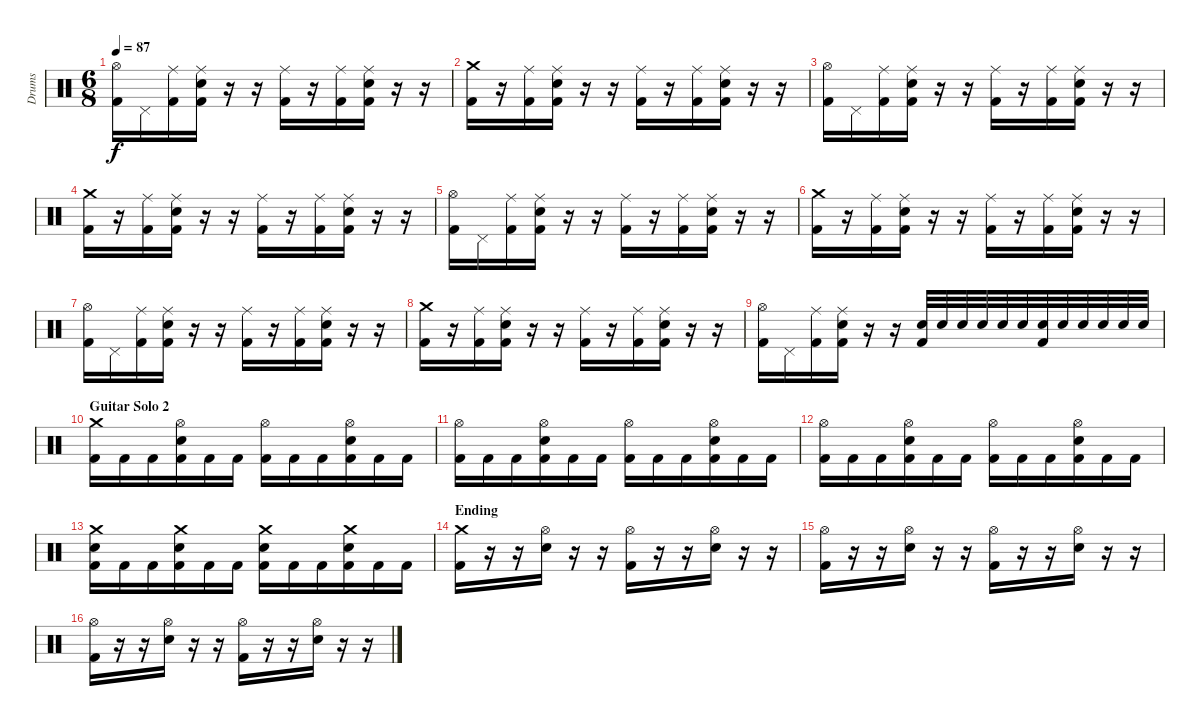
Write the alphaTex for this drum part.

\track ("Drums" "Drums") {instrument percussion}
\staff {score}
\articulation defaults
\ts (6 8)
\tempo 87
\clef neutral
\ks c
("Hi-Hat (open)" "Kick (hit) 2").16{dy f} "Pedal Hi-Hat (hit)".16 ("Ride (middle)" "Kick (hit) 2").16 ("Ride (middle)" "Snare (hit) 2" "Kick (hit) 2").16 r.16 r.16 ("Ride (middle)" "Kick (hit) 2").16 r.16 ("Ride (middle)" "Kick (hit) 2").16 ("Ride (middle)" "Snare (hit) 2" "Kick (hit) 2").16 r.16 r.16 |
("Crash medium (hit)" "Kick (hit) 2").16 r.16 ("Ride (middle)" "Kick (hit) 2").16 ("Ride (middle)" "Snare (hit) 2" "Kick (hit) 2").16 r.16 r.16 ("Ride (middle)" "Kick (hit) 2").16 r.16 ("Ride (middle)" "Kick (hit) 2").16 ("Ride (middle)" "Snare (hit) 2" "Kick (hit) 2").16 r.16 r.16 |
("Hi-Hat (open)" "Kick (hit) 2").16 "Pedal Hi-Hat (hit)".16 ("Ride (middle)" "Kick (hit) 2").16 ("Ride (middle)" "Snare (hit) 2" "Kick (hit) 2").16 r.16 r.16 ("Ride (middle)" "Kick (hit) 2").16 r.16 ("Ride (middle)" "Kick (hit) 2").16 ("Ride (middle)" "Snare (hit) 2" "Kick (hit) 2").16 r.16 r.16 |
("Crash medium (hit)" "Kick (hit) 2").16 r.16 ("Ride (middle)" "Kick (hit) 2").16 ("Ride (middle)" "Snare (hit) 2" "Kick (hit) 2").16 r.16 r.16 ("Ride (middle)" "Kick (hit) 2").16 r.16 ("Ride (middle)" "Kick (hit) 2").16 ("Ride (middle)" "Snare (hit) 2" "Kick (hit) 2").16 r.16 r.16 |
("Hi-Hat (open)" "Kick (hit) 2").16 "Pedal Hi-Hat (hit)".16 ("Ride (middle)" "Kick (hit) 2").16 ("Ride (middle)" "Snare (hit) 2" "Kick (hit) 2").16 r.16 r.16 ("Ride (middle)" "Kick (hit) 2").16 r.16 ("Ride (middle)" "Kick (hit) 2").16 ("Ride (middle)" "Snare (hit) 2" "Kick (hit) 2").16 r.16 r.16 |
("Crash medium (hit)" "Kick (hit) 2").16 r.16 ("Ride (middle)" "Kick (hit) 2").16 ("Ride (middle)" "Snare (hit) 2" "Kick (hit) 2").16 r.16 r.16 ("Ride (middle)" "Kick (hit) 2").16 r.16 ("Ride (middle)" "Kick (hit) 2").16 ("Ride (middle)" "Snare (hit) 2" "Kick (hit) 2").16 r.16 r.16 |
("Hi-Hat (open)" "Kick (hit) 2").16 "Pedal Hi-Hat (hit)".16 ("Ride (middle)" "Kick (hit) 2").16 ("Ride (middle)" "Snare (hit) 2" "Kick (hit) 2").16 r.16 r.16 ("Ride (middle)" "Kick (hit) 2").16 r.16 ("Ride (middle)" "Kick (hit) 2").16 ("Ride (middle)" "Snare (hit) 2" "Kick (hit) 2").16 r.16 r.16 |
("Crash medium (hit)" "Kick (hit) 2").16 r.16 ("Ride (middle)" "Kick (hit) 2").16 ("Ride (middle)" "Snare (hit) 2" "Kick (hit) 2").16 r.16 r.16 ("Ride (middle)" "Kick (hit) 2").16 r.16 ("Ride (middle)" "Kick (hit) 2").16 ("Ride (middle)" "Snare (hit) 2" "Kick (hit) 2").16 r.16 r.16 |
("Hi-Hat (open)" "Kick (hit) 2").16 "Pedal Hi-Hat (hit)".16 ("Ride (middle)" "Kick (hit) 2").16 ("Ride (middle)" "Snare (hit) 2" "Kick (hit) 2").16 r.16 r.16 ("Snare (hit) 2" "Kick (hit) 2").32 "Snare (hit) 2".32 "Snare (hit) 2".32 "Snare (hit) 2".32 "Snare (hit) 2".32 "Snare (hit) 2".32 ("Snare (hit) 2" "Kick (hit) 2").32 "Snare (hit) 2".32 "Snare (hit) 2".32 "Snare (hit) 2".32 "Snare (hit) 2".32 "Snare (hit) 2".32 |
\section ("" "Guitar Solo 2")
("Crash medium (hit)" "Kick (hit) 2").16 "Kick (hit) 2".16 "Kick (hit) 2".16 ("Hi-Hat (open)" "Snare (hit) 2" "Kick (hit) 2").16 "Kick (hit) 2".16 "Kick (hit) 2".16 ("Hi-Hat (open)" "Kick (hit) 2").16 "Kick (hit) 2".16 "Kick (hit) 2".16 ("Hi-Hat (open)" "Snare (hit) 2" "Kick (hit) 2").16 "Kick (hit) 2".16 "Kick (hit) 2".16 |
("Hi-Hat (open)" "Kick (hit) 2").16 "Kick (hit) 2".16 "Kick (hit) 2".16 ("Hi-Hat (open)" "Snare (hit) 2" "Kick (hit) 2").16 "Kick (hit) 2".16 "Kick (hit) 2".16 ("Hi-Hat (open)" "Kick (hit) 2").16 "Kick (hit) 2".16 "Kick (hit) 2".16 ("Hi-Hat (open)" "Snare (hit) 2" "Kick (hit) 2").16 "Kick (hit) 2".16 "Kick (hit) 2".16 |
("Hi-Hat (open)" "Kick (hit) 2").16 "Kick (hit) 2".16 "Kick (hit) 2".16 ("Hi-Hat (open)" "Snare (hit) 2" "Kick (hit) 2").16 "Kick (hit) 2".16 "Kick (hit) 2".16 ("Hi-Hat (open)" "Kick (hit) 2").16 "Kick (hit) 2".16 "Kick (hit) 2".16 ("Hi-Hat (open)" "Snare (hit) 2" "Kick (hit) 2").16 "Kick (hit) 2".16 "Kick (hit) 2".16 |
("Crash medium (hit)" "Snare (hit) 2" "Kick (hit) 2").16 "Kick (hit) 2".16 "Kick (hit) 2".16 ("Crash medium (hit)" "Snare (hit) 2" "Kick (hit) 2").16 "Kick (hit) 2".16 "Kick (hit) 2".16 ("Crash medium (hit)" "Snare (hit) 2" "Kick (hit) 2").16 "Kick (hit) 2".16 "Kick (hit) 2".16 ("Crash medium (hit)" "Snare (hit) 2" "Kick (hit) 2").16 "Kick (hit) 2".16 "Kick (hit) 2".16 |
\section ("" "Ending")
("Crash medium (hit)" "Kick (hit) 2").16 r.16 r.16 ("Hi-Hat (open)" "Snare (hit) 2").16 r.16 r.16 ("Hi-Hat (open)" "Kick (hit) 2").16 r.16 r.16 ("Hi-Hat (open)" "Snare (hit) 2").16 r.16 r.16 |
("Hi-Hat (open)" "Kick (hit) 2").16 r.16 r.16 ("Hi-Hat (open)" "Snare (hit) 2").16 r.16 r.16 ("Hi-Hat (open)" "Kick (hit) 2").16 r.16 r.16 ("Hi-Hat (open)" "Snare (hit) 2").16 r.16 r.16 |
("Hi-Hat (open)" "Kick (hit) 2").16 r.16 r.16 ("Hi-Hat (open)" "Snare (hit) 2").16 r.16 r.16 ("Hi-Hat (open)" "Kick (hit) 2").16 r.16 r.16 ("Hi-Hat (open)" "Snare (hit) 2").16 r.16 r.16
